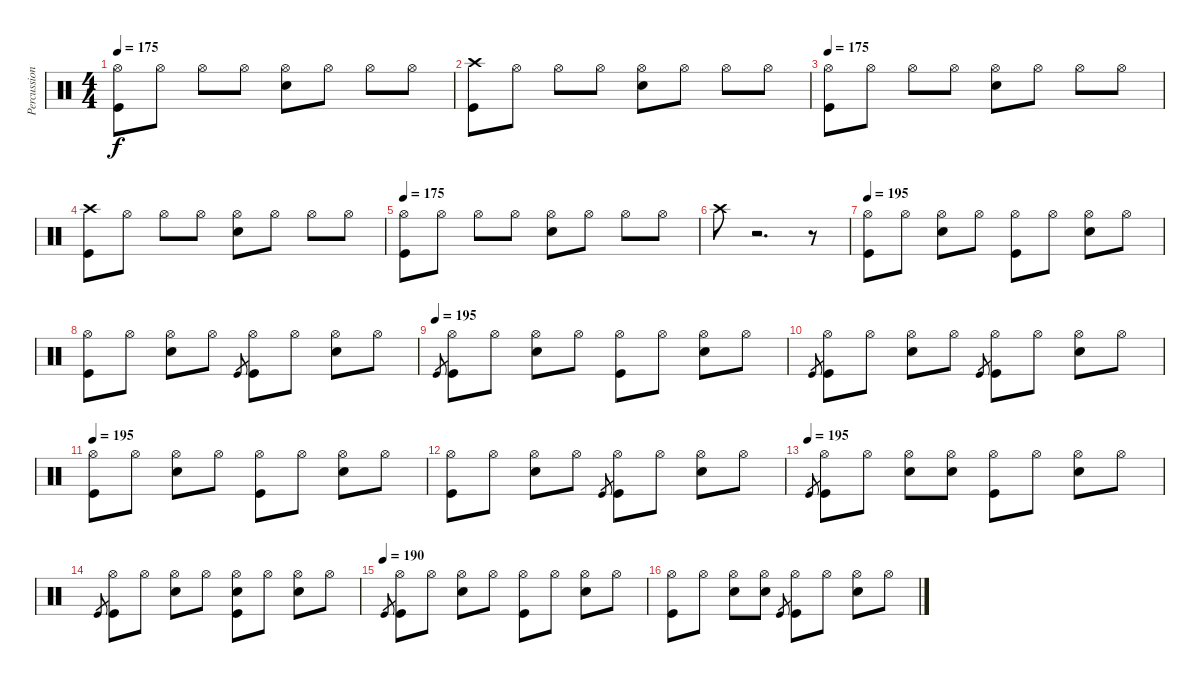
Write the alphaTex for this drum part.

\track ("Percussion" "Percussion") {instrument percussion}
\staff {score}
\articulation defaults
\ts (4 4)
\tempo 175
\clef neutral
\ks c
("Hi-Hat (open)" "Kick (hit)").8{dy f} "Hi-Hat (open)".8 "Hi-Hat (open)".8 "Hi-Hat (open)".8 ("Hi-Hat (open)" "Electric Snare (hit)").8 "Hi-Hat (open)".8 "Hi-Hat (open)".8 "Hi-Hat (open)".8 |
("Crash high (hit)" "Kick (hit)").8 "Hi-Hat (open)".8 "Hi-Hat (open)".8 "Hi-Hat (open)".8 ("Hi-Hat (open)" "Electric Snare (hit)").8 "Hi-Hat (open)".8 "Hi-Hat (open)".8 "Hi-Hat (open)".8 |
\tempo 175
("Hi-Hat (open)" "Kick (hit)").8 "Hi-Hat (open)".8 "Hi-Hat (open)".8 "Hi-Hat (open)".8 ("Hi-Hat (open)" "Electric Snare (hit)").8 "Hi-Hat (open)".8 "Hi-Hat (open)".8 "Hi-Hat (open)".8 |
("Crash high (hit)" "Kick (hit)").8 "Hi-Hat (open)".8 "Hi-Hat (open)".8 "Hi-Hat (open)".8 ("Hi-Hat (open)" "Electric Snare (hit)").8 "Hi-Hat (open)".8 "Hi-Hat (open)".8 "Hi-Hat (open)".8 |
\tempo 175
("Hi-Hat (open)" "Kick (hit)").8 "Hi-Hat (open)".8 "Hi-Hat (open)".8 "Hi-Hat (open)".8 ("Hi-Hat (open)" "Electric Snare (hit)").8 "Hi-Hat (open)".8 "Hi-Hat (open)".8 "Hi-Hat (open)".8 |
"Crash high (hit)".8 r.2{d} r.8 |
\tempo 195
("Hi-Hat (open)" "Kick (hit)").8 "Hi-Hat (open)".8 ("Hi-Hat (open)" "Electric Snare (hit)").8 "Hi-Hat (open)".8 ("Hi-Hat (open)" "Kick (hit)").8 "Hi-Hat (open)".8 ("Hi-Hat (open)" "Electric Snare (hit)").8 "Hi-Hat (open)".8 |
("Hi-Hat (open)" "Kick (hit)").8 "Hi-Hat (open)".8 ("Hi-Hat (open)" "Electric Snare (hit)").8 "Hi-Hat (open)".8 "Kick (hit)".8{gr} ("Hi-Hat (open)" "Kick (hit)").8 "Hi-Hat (open)".8 ("Hi-Hat (open)" "Electric Snare (hit)").8 "Hi-Hat (open)".8 |
\tempo (195)
"Kick (hit)".8{gr} ("Hi-Hat (open)" "Kick (hit)").8 "Hi-Hat (open)".8 ("Hi-Hat (open)" "Electric Snare (hit)").8 "Hi-Hat (open)".8 ("Hi-Hat (open)" "Kick (hit)").8 "Hi-Hat (open)".8 ("Hi-Hat (open)" "Electric Snare (hit)").8 "Hi-Hat (open)".8 |
"Kick (hit)".8{gr} ("Hi-Hat (open)" "Kick (hit)").8 "Hi-Hat (open)".8 ("Hi-Hat (open)" "Electric Snare (hit)").8 "Hi-Hat (open)".8 "Kick (hit)".8{gr} ("Hi-Hat (open)" "Kick (hit)").8 "Hi-Hat (open)".8 ("Hi-Hat (open)" "Electric Snare (hit)").8 "Hi-Hat (open)".8 |
\tempo 195
("Hi-Hat (open)" "Kick (hit)").8 "Hi-Hat (open)".8 ("Hi-Hat (open)" "Electric Snare (hit)").8 "Hi-Hat (open)".8 ("Hi-Hat (open)" "Kick (hit)").8 "Hi-Hat (open)".8 ("Hi-Hat (open)" "Electric Snare (hit)").8 "Hi-Hat (open)".8 |
("Hi-Hat (open)" "Kick (hit)").8 "Hi-Hat (open)".8 ("Hi-Hat (open)" "Electric Snare (hit)").8 "Hi-Hat (open)".8 "Kick (hit)".8{gr} ("Hi-Hat (open)" "Kick (hit)").8 "Hi-Hat (open)".8 ("Hi-Hat (open)" "Electric Snare (hit)").8 "Hi-Hat (open)".8 |
\tempo (195)
"Kick (hit)".8{gr} ("Hi-Hat (open)" "Kick (hit)").8 "Hi-Hat (open)".8 ("Hi-Hat (open)" "Electric Snare (hit)").8 ("Hi-Hat (open)" "Electric Snare (hit)").8 ("Hi-Hat (open)" "Kick (hit)").8 "Hi-Hat (open)".8 ("Hi-Hat (open)" "Electric Snare (hit)").8 "Hi-Hat (open)".8 |
"Kick (hit)".8{gr} ("Hi-Hat (open)" "Kick (hit)").8 "Hi-Hat (open)".8 ("Hi-Hat (open)" "Electric Snare (hit)").8 "Hi-Hat (open)".8 ("Hi-Hat (open)" "Electric Snare (hit)" "Kick (hit)").8 "Hi-Hat (open)".8 ("Hi-Hat (open)" "Electric Snare (hit)").8 "Hi-Hat (open)".8 |
\tempo 195
\tempo (190)
"Kick (hit)".8{gr} ("Hi-Hat (open)" "Kick (hit)").8 "Hi-Hat (open)".8 ("Hi-Hat (open)" "Electric Snare (hit)").8 "Hi-Hat (open)".8 ("Hi-Hat (open)" "Kick (hit)").8 "Hi-Hat (open)".8 ("Hi-Hat (open)" "Electric Snare (hit)").8 "Hi-Hat (open)".8 |
("Hi-Hat (open)" "Kick (hit)").8 "Hi-Hat (open)".8 ("Hi-Hat (open)" "Electric Snare (hit)").8 ("Hi-Hat (open)" "Electric Snare (hit)").8 "Kick (hit)".8{gr} ("Hi-Hat (open)" "Kick (hit)").8 "Hi-Hat (open)".8 ("Hi-Hat (open)" "Electric Snare (hit)").8 "Hi-Hat (open)".8
